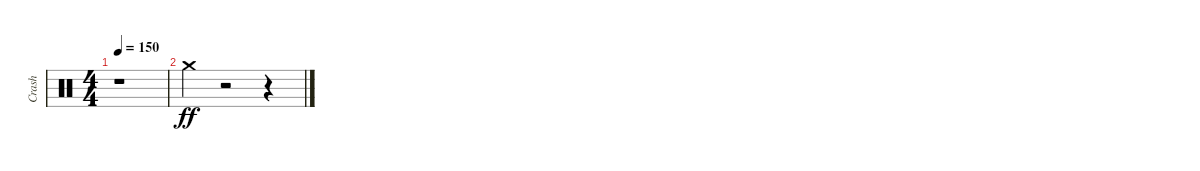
\track ("Crash" "Crash") {instrument percussion}
\staff {score}
\articulation defaults
\ts (4 4)
\tempo 150
\clef neutral
\ks c
r.1{dy f} |
"Crash medium (hit)".4{dy ff} r.2 r.4
